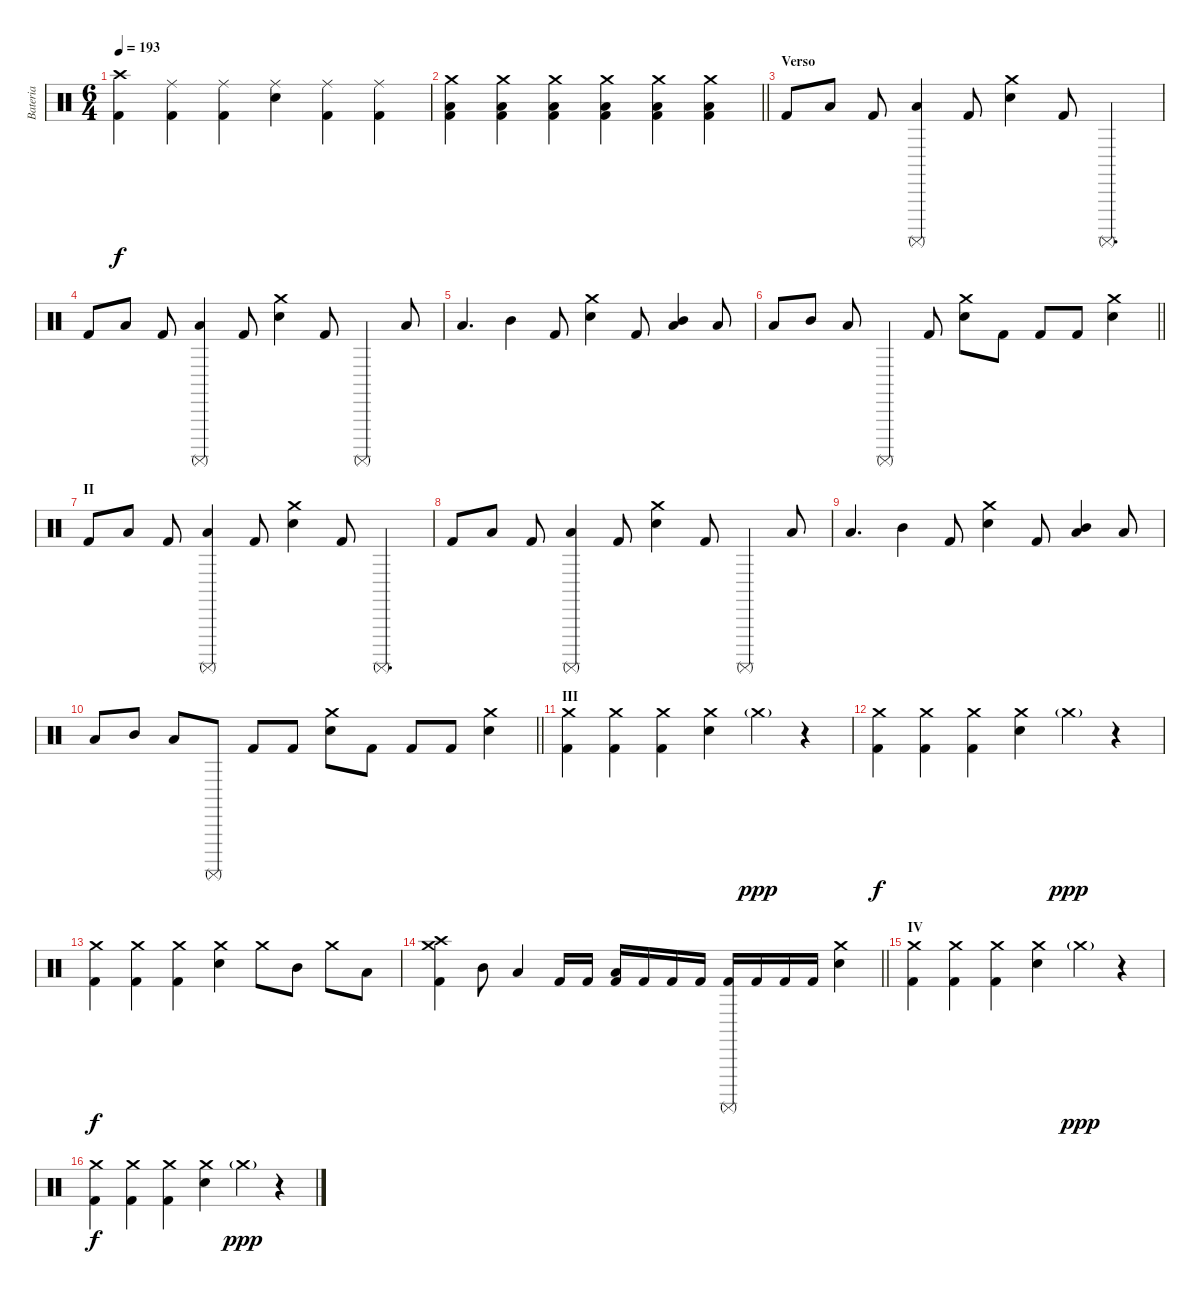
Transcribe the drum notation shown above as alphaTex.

\track ("Bateria" "Bateria") {instrument percussion}
\staff {score}
\articulation defaults
\ts (6 4)
\tempo 193
\clef neutral
\ks c
("Kick (hit) 2" "Crash high (hit)").4{dy f} ("Kick (hit) 2" "Ride (middle)").4 ("Kick (hit) 2" "Ride (middle)").4 ("Electric Snare (hit)" "Ride (middle)").4 ("Kick (hit) 2" "Ride (middle)").4 ("Kick (hit) 2" "Ride (middle)").4 |
\barLineRight lightlight
("Kick (hit) 2" "Low Tom (hit)" "Crash medium (hit)").4 ("Kick (hit) 2" "Low Tom (hit)" "Crash medium (hit)").4 ("Kick (hit) 2" "Low Tom (hit)" "Crash medium (hit)").4 ("Kick (hit) 2" "Low Tom (hit)" "Crash medium (hit)").4 ("Kick (hit) 2" "Low Tom (hit)" "Crash medium (hit)").4 ("Kick (hit) 2" "Low Tom (hit)" "Crash medium (hit)").4 |
\section ("" "Verso")
"Kick (hit) 2".8 "Low Tom (hit)".8 "Kick (hit) 2".8 ("Low Tom (hit)" "Surdo (mute)").4 "Kick (hit) 2".8 ("Electric Snare (hit)" "Crash medium (hit)").4 "Kick (hit) 2".8 "Surdo (mute)".4{d} |
"Kick (hit) 2".8 "Low Tom (hit)".8 "Kick (hit) 2".8 ("Low Tom (hit)" "Surdo (mute)").4 "Kick (hit) 2".8 ("Electric Snare (hit)" "Crash medium (hit)").4 "Kick (hit) 2".8 "Surdo (mute)".4 "Low Tom (hit)".8 |
"Low Tom (hit)".4{d} "Mid Tom (hit)".4 "Kick (hit) 2".8 ("Electric Snare (hit)" "Crash medium (hit)").4 "Kick (hit) 2".8 ("Mid Tom (hit)" "Low Tom (hit)").4 "Low Tom (hit)".8 |
\barLineRight lightlight "Low Tom (hit)".8 "Mid Tom (hit)".8 "Low Tom (hit)".8 "Surdo (mute)".4 "Kick (hit) 2".8
("Electric Snare (hit)" "Crash medium (hit)").8 "Kick (hit) 2".8 "Kick (hit) 2".8 "Kick (hit) 2".8 ("Electric Snare (hit)" "Crash medium (hit)").4 |
\section ("" "II")
"Kick (hit) 2".8 "Low Tom (hit)".8 "Kick (hit) 2".8 ("Low Tom (hit)" "Surdo (mute)").4 "Kick (hit) 2".8 ("Electric Snare (hit)" "Crash medium (hit)").4 "Kick (hit) 2".8 "Surdo (mute)".4{d} |
"Kick (hit) 2".8 "Low Tom (hit)".8 "Kick (hit) 2".8 ("Low Tom (hit)" "Surdo (mute)").4 "Kick (hit) 2".8 ("Electric Snare (hit)" "Crash medium (hit)").4 "Kick (hit) 2".8 "Surdo (mute)".4 "Low Tom (hit)".8 |
"Low Tom (hit)".4{d} "Mid Tom (hit)".4 "Kick (hit) 2".8 ("Electric Snare (hit)" "Crash medium (hit)").4 "Kick (hit) 2".8 ("Mid Tom (hit)" "Low Tom (hit)").4 "Low Tom (hit)".8 |
\barLineRight lightlight "Low Tom (hit)".8 "Mid Tom (hit)".8 "Low Tom (hit)".8 "Surdo (mute)".8 "Kick (hit) 2".8 "Kick (hit) 2".8
("Electric Snare (hit)" "Crash medium (hit)").8 "Kick (hit) 2".8 "Kick (hit) 2".8 "Kick (hit) 2".8 ("Electric Snare (hit)" "Crash medium (hit)").4 |
\section ("" "III")
("Kick (hit) 2" "Crash medium (hit)").4 ("Kick (hit) 2" "Crash medium (hit)").4 ("Kick (hit) 2" "Crash medium (hit)").4 ("Electric Snare (hit)" "Crash medium (hit)").4 "Crash medium (hit)"{g}.4{dy ppp} r.4 |
("Kick (hit) 2" "Crash medium (hit)").4{dy f} ("Kick (hit) 2" "Crash medium (hit)").4 ("Kick (hit) 2" "Crash medium (hit)").4 ("Electric Snare (hit)" "Crash medium (hit)").4 "Crash medium (hit)"{g}.4{dy ppp} r.4 |
("Kick (hit) 2" "Crash medium (hit)").4{dy f} ("Kick (hit) 2" "Crash medium (hit)").4 ("Kick (hit) 2" "Crash medium (hit)").4 ("Electric Snare (hit)" "Crash medium (hit)").4 "Crash medium (hit)".8 "Mid Tom (hit)".8 "Crash medium (hit)".8 "Low Tom (hit)".8 |
\barLineRight lightlight
("Kick (hit) 2" "Crash high (hit)" "Crash medium (hit)").4 "Mid Tom (hit)".8 "Low Tom (hit)".4 "Kick (hit) 2".16 "Kick (hit) 2".16 ("Kick (hit) 2" "Low Tom (hit)").16 "Kick (hit) 2".16 "Kick (hit) 2".16 "Kick (hit) 2".16 ("Kick (hit) 2" "Surdo (mute)").16 "Kick (hit) 2".16 "Kick (hit) 2".16 "Kick (hit) 2".16 ("Electric Snare (hit)" "Crash medium (hit)").4 |
\section ("" "IV")
("Kick (hit) 2" "Crash medium (hit)").4 ("Kick (hit) 2" "Crash medium (hit)").4 ("Kick (hit) 2" "Crash medium (hit)").4 ("Electric Snare (hit)" "Crash medium (hit)").4 "Crash medium (hit)"{g}.4{dy ppp} r.4 |
("Kick (hit) 2" "Crash medium (hit)").4{dy f} ("Kick (hit) 2" "Crash medium (hit)").4 ("Kick (hit) 2" "Crash medium (hit)").4 ("Electric Snare (hit)" "Crash medium (hit)").4 "Crash medium (hit)"{g}.4{dy ppp} r.4
